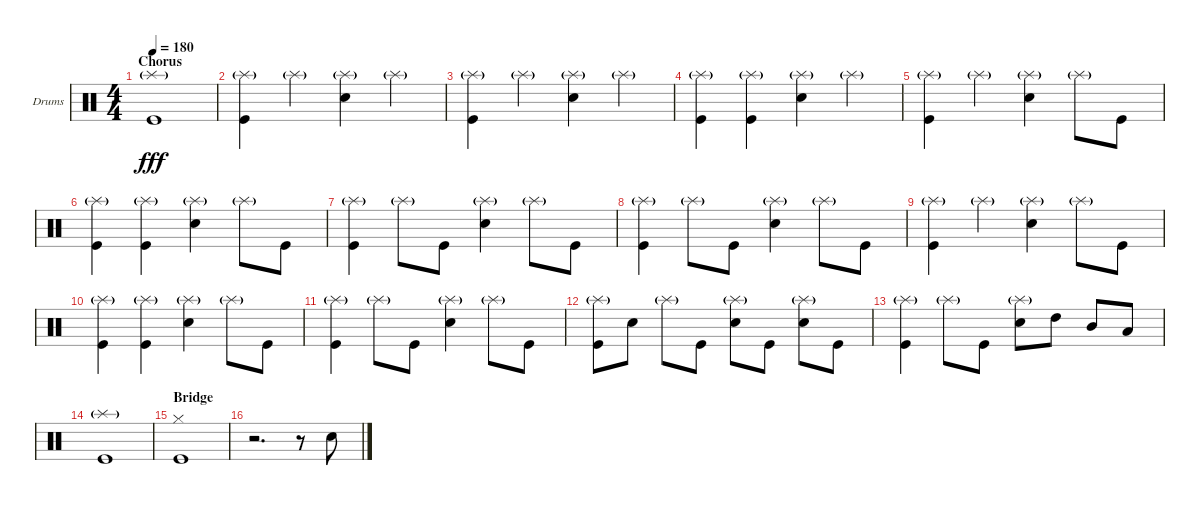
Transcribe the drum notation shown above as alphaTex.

\bracketExtendMode groupsimilarinstruments
\firstSystemTrackNameOrientation horizontal
\otherSystemsTrackNameOrientation horizontal
\track ("Drumkit" "Drums") {instrument percussion}
\staff {score}
\articulation defaults
\ts (4 4)
\section ("" "Chorus")
\tempo 180
\clef neutral
\scale
0.333333
\ks c
("Kick (hit)" "Splash (hit)"{g}).1{dy fff} |
\scale
0.333333 ("Kick (hit)" "Splash (hit)"{g}).4 "Splash (hit)"{g}.4 ("Snare (hit) 2" "Splash (hit)"{g}).4 "Splash (hit)"{g}.4 |
\scale
0.333333 ("Kick (hit)" "Splash (hit)"{g}).4 "Splash (hit)"{g}.4 ("Snare (hit) 2" "Splash (hit)"{g}).4 "Splash (hit)"{g}.4 |
\scale
0.333333 ("Kick (hit)" "Splash (hit)"{g}).4 ("Kick (hit)" "Splash (hit)"{g}).4 ("Snare (hit) 2" "Splash (hit)"{g}).4 "Splash (hit)"{g}.4 |
\scale
0.333333 ("Kick (hit)" "Splash (hit)"{g}).4 "Splash (hit)"{g}.4 ("Snare (hit) 2" "Splash (hit)"{g}).4 "Splash (hit)"{g}.8 "Kick (hit)".8 |
\scale
0.333333 ("Kick (hit)" "Splash (hit)"{g}).4 ("Kick (hit)" "Splash (hit)"{g}).4 ("Snare (hit) 2" "Splash (hit)"{g}).4 "Splash (hit)"{g}.8 "Kick (hit)".8 |
\scale
0.333333 ("Kick (hit)" "Splash (hit)"{g}).4 "Splash (hit)"{g}.8 "Kick (hit)".8 ("Snare (hit) 2" "Splash (hit)"{g}).4 "Splash (hit)"{g}.8 "Kick (hit)".8 |
\scale
0.333333 ("Kick (hit)" "Splash (hit)"{g}).4 "Splash (hit)"{g}.8 "Kick (hit)".8 ("Snare (hit) 2" "Splash (hit)"{g}).4 "Splash (hit)"{g}.8 "Kick (hit)".8 |
\scale
0.333333 ("Kick (hit)" "Splash (hit)"{g}).4 "Splash (hit)"{g}.4 ("Snare (hit) 2" "Splash (hit)"{g}).4 "Splash (hit)"{g}.8 "Kick (hit)".8 |
\scale
0.333333 ("Kick (hit)" "Splash (hit)"{g}).4 ("Kick (hit)" "Splash (hit)"{g}).4 ("Snare (hit) 2" "Splash (hit)"{g}).4 "Splash (hit)"{g}.8 "Kick (hit)".8 |
\scale
0.333333 ("Kick (hit)" "Splash (hit)"{g}).4 "Splash (hit)"{g}.8 "Kick (hit)".8 ("Snare (hit) 2" "Splash (hit)"{g}).4 "Splash (hit)"{g}.8 "Kick (hit)".8 |
\scale
0.333333 ("Kick (hit)" "Splash (hit)"{g}).8 "Snare (hit) 2".8 "Splash (hit)"{g}.8 "Kick (hit)".8 ("Snare (hit) 2" "Splash (hit)"{g}).8 "Kick (hit)".8 ("Snare (hit) 2" "Splash (hit)"{g}).8 "Kick (hit)".8 |
\scale
0.333333 ("Kick (hit)" "Splash (hit)"{g}).4 "Splash (hit)"{g}.8 "Kick (hit)".8 ("Snare (hit) 2" "Splash (hit)"{g}).8 "High Tom (hit)".8 "Mid Tom (hit)".8 "Low Tom (hit)".8 |
\scale
0.333333 ("Kick (hit)" "Splash (hit)"{g}).1 |
\section ("" "Bridge")
\scale
0.333333 ("Kick (hit)" "Hi-Hat (closed)").1 |
\scale
0.333333 r.2{d} r.8 "Snare (hit) 2".8
